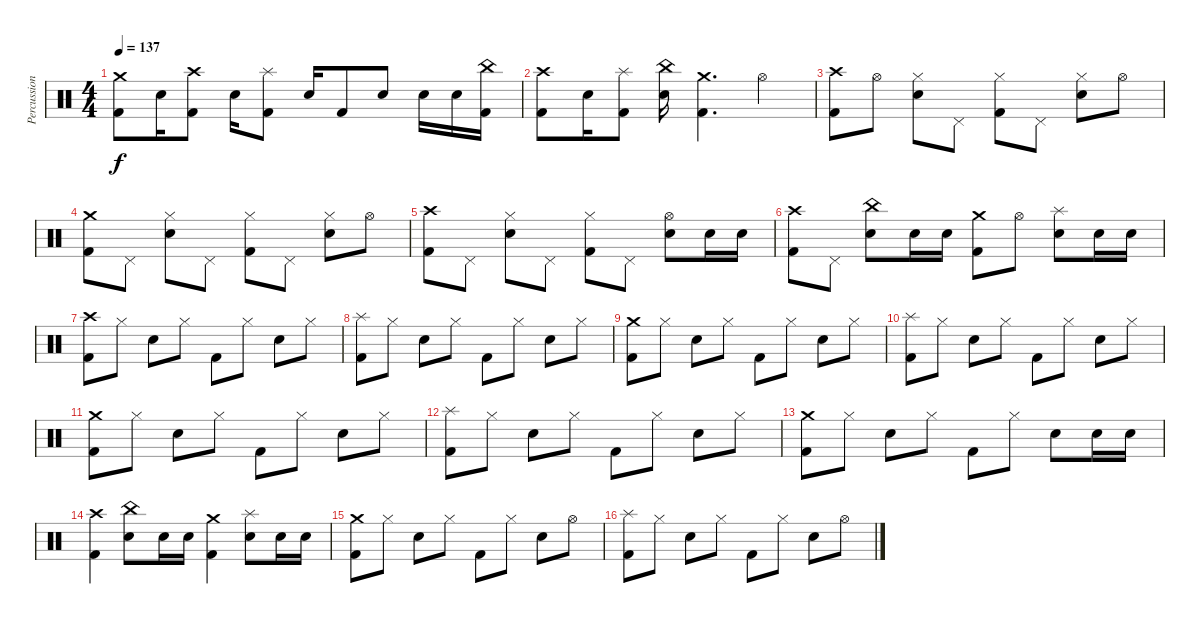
\track ("Percussion" "Percussion") {instrument percussion}
\staff {score}
\articulation defaults
\ts (4 4)
\tempo 137
\clef neutral
\ks c
("Crash medium (hit)" "Kick (hit) 2").8{dy f} "Electric Snare (hit)".16 ("Crash high (hit)" "Kick (hit) 2").8 "Electric Snare (hit)".16 ("Splash (hit)" "Kick (hit) 2").8 "Electric Snare (hit)".16 "Kick (hit) 2".8 "Electric Snare (hit)".8 "Electric Snare (hit)".16 "Electric Snare (hit)".16 ("China (hit)" "Kick (hit) 2").16 |
("Crash high (hit)" "Kick (hit) 2").8 "Electric Snare (hit)".16 ("Splash (hit)" "Kick (hit) 2").8 ("China (hit)" "Electric Snare (hit)").16 ("Crash medium (hit)" "Kick (hit) 2").4{d} "Hi-Hat (open)".4 |
("Crash high (hit)" "Kick (hit) 2").8 "Hi-Hat (open)".8 ("Hi-Hat (closed)" "Electric Snare (hit)").8 "Pedal Hi-Hat (hit)".8 ("Hi-Hat (closed)" "Kick (hit) 2").8 "Pedal Hi-Hat (hit)".8 ("Hi-Hat (closed)" "Electric Snare (hit)").8 "Hi-Hat (open)".8 |
("Crash medium (hit)" "Kick (hit) 2").8 "Pedal Hi-Hat (hit)".8 ("Hi-Hat (closed)" "Electric Snare (hit)").8 "Pedal Hi-Hat (hit)".8 ("Hi-Hat (closed)" "Kick (hit) 2").8 "Pedal Hi-Hat (hit)".8 ("Hi-Hat (closed)" "Electric Snare (hit)").8 "Hi-Hat (open)".8 |
("Crash high (hit)" "Kick (hit) 2").8 "Pedal Hi-Hat (hit)".8 ("Hi-Hat (closed)" "Electric Snare (hit)").8 "Pedal Hi-Hat (hit)".8 ("Hi-Hat (closed)" "Kick (hit) 2").8 "Pedal Hi-Hat (hit)".8 ("Hi-Hat (open)" "Electric Snare (hit)").8 "Electric Snare (hit)".16 "Electric Snare (hit)".16 |
("Crash high (hit)" "Kick (hit) 2").8 "Pedal Hi-Hat (hit)".8 ("China (hit)" "Electric Snare (hit)").8 "Electric Snare (hit)".16 "Electric Snare (hit)".16 ("Crash medium (hit)" "Kick (hit) 2").8 "Hi-Hat (open)".8 ("Splash (hit)" "Electric Snare (hit)").8 "Electric Snare (hit)".16 "Electric Snare (hit)".16 |
("Crash high (hit)" "Kick (hit) 2").8 "Hi-Hat (closed)".8 "Electric Snare (hit)".8 "Hi-Hat (closed)".8 "Kick (hit) 2".8 "Hi-Hat (closed)".8 "Electric Snare (hit)".8 "Hi-Hat (closed)".8 |
("Splash (hit)" "Kick (hit) 2").8 "Hi-Hat (closed)".8 "Electric Snare (hit)".8 "Hi-Hat (closed)".8 "Kick (hit) 2".8 "Hi-Hat (closed)".8 "Electric Snare (hit)".8 "Hi-Hat (closed)".8 |
("Crash medium (hit)" "Kick (hit) 2").8 "Hi-Hat (closed)".8 "Electric Snare (hit)".8 "Hi-Hat (closed)".8 "Kick (hit) 2".8 "Hi-Hat (closed)".8 "Electric Snare (hit)".8 "Hi-Hat (closed)".8 |
("Splash (hit)" "Kick (hit) 2").8 "Hi-Hat (closed)".8 "Electric Snare (hit)".8 "Hi-Hat (closed)".8 "Kick (hit) 2".8 "Hi-Hat (closed)".8 "Electric Snare (hit)".8 "Hi-Hat (closed)".8 |
("Crash medium (hit)" "Kick (hit) 2").8 "Hi-Hat (closed)".8 "Electric Snare (hit)".8 "Hi-Hat (closed)".8 "Kick (hit) 2".8 "Hi-Hat (closed)".8 "Electric Snare (hit)".8 "Hi-Hat (closed)".8 |
("Splash (hit)" "Kick (hit) 2").8 "Hi-Hat (closed)".8 "Electric Snare (hit)".8 "Hi-Hat (closed)".8 "Kick (hit) 2".8 "Hi-Hat (closed)".8 "Electric Snare (hit)".8 "Hi-Hat (closed)".8 |
("Crash medium (hit)" "Kick (hit) 2").8 "Hi-Hat (closed)".8 "Electric Snare (hit)".8 "Hi-Hat (closed)".8 "Kick (hit) 2".8 "Hi-Hat (closed)".8 "Electric Snare (hit)".8 "Electric Snare (hit)".16 "Electric Snare (hit)".16 |
("Crash high (hit)" "Kick (hit) 2").4 ("China (hit)" "Electric Snare (hit)").8 "Electric Snare (hit)".16 "Electric Snare (hit)".16 ("Crash medium (hit)" "Kick (hit) 2").4 ("Splash (hit)" "Electric Snare (hit)").8 "Electric Snare (hit)".16 "Electric Snare (hit)".16 |
("Crash medium (hit)" "Kick (hit) 2").8 "Hi-Hat (closed)".8 "Electric Snare (hit)".8 "Hi-Hat (closed)".8 "Kick (hit) 2".8 "Hi-Hat (closed)".8 "Electric Snare (hit)".8 "Hi-Hat (open)".8 |
("Splash (hit)" "Kick (hit) 2").8 "Hi-Hat (closed)".8 "Electric Snare (hit)".8 "Hi-Hat (closed)".8 "Kick (hit) 2".8 "Hi-Hat (closed)".8 "Electric Snare (hit)".8 "Hi-Hat (open)".8
